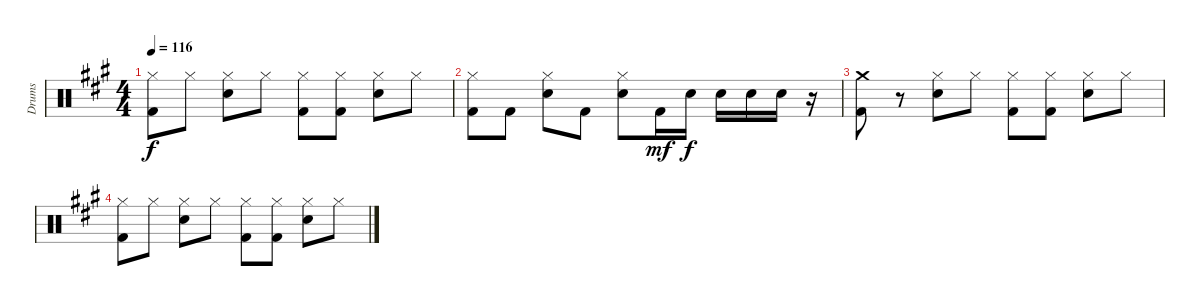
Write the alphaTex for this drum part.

\track ("Drums" "Drums") {instrument percussion}
\staff {score}
\articulation defaults
\ts (4 4)
\tempo 116
\clef neutral
\ks a
("Kick (hit) 2" "Hi-Hat (closed)").8{dy f} "Hi-Hat (closed)".8 ("Snare (hit) 2" "Hi-Hat (closed)").8 "Hi-Hat (closed)".8 ("Kick (hit) 2" "Hi-Hat (closed)").8 ("Kick (hit) 2" "Hi-Hat (closed)").8 ("Snare (hit) 2" "Hi-Hat (closed)").8 "Hi-Hat (closed)".8 |
("Kick (hit) 2" "Hi-Hat (closed)").8 "Kick (hit) 2".8 ("Hi-Hat (closed)" "Snare (hit) 2").8 "Kick (hit) 2".8 ("Snare (hit) 2" "Hi-Hat (closed)").8 "Kick (hit) 2".16{dy mf} "Snare (hit) 2".16{dy f} "Snare (hit) 2".16 "Snare (hit) 2".16 "Snare (hit) 2".16 r.16 |
("Crash medium (hit)" "Kick (hit) 2").8 r.8 ("Snare (hit) 2" "Hi-Hat (closed)").8 "Hi-Hat (closed)".8 ("Kick (hit) 2" "Hi-Hat (closed)").8 ("Kick (hit) 2" "Hi-Hat (closed)").8 ("Snare (hit) 2" "Hi-Hat (closed)").8 "Hi-Hat (closed)".8 |
("Kick (hit) 2" "Hi-Hat (closed)").8 "Hi-Hat (closed)".8 ("Snare (hit) 2" "Hi-Hat (closed)").8 "Hi-Hat (closed)".8 ("Kick (hit) 2" "Hi-Hat (closed)").8 ("Kick (hit) 2" "Hi-Hat (closed)").8 ("Snare (hit) 2" "Hi-Hat (closed)").8 "Hi-Hat (closed)".8
